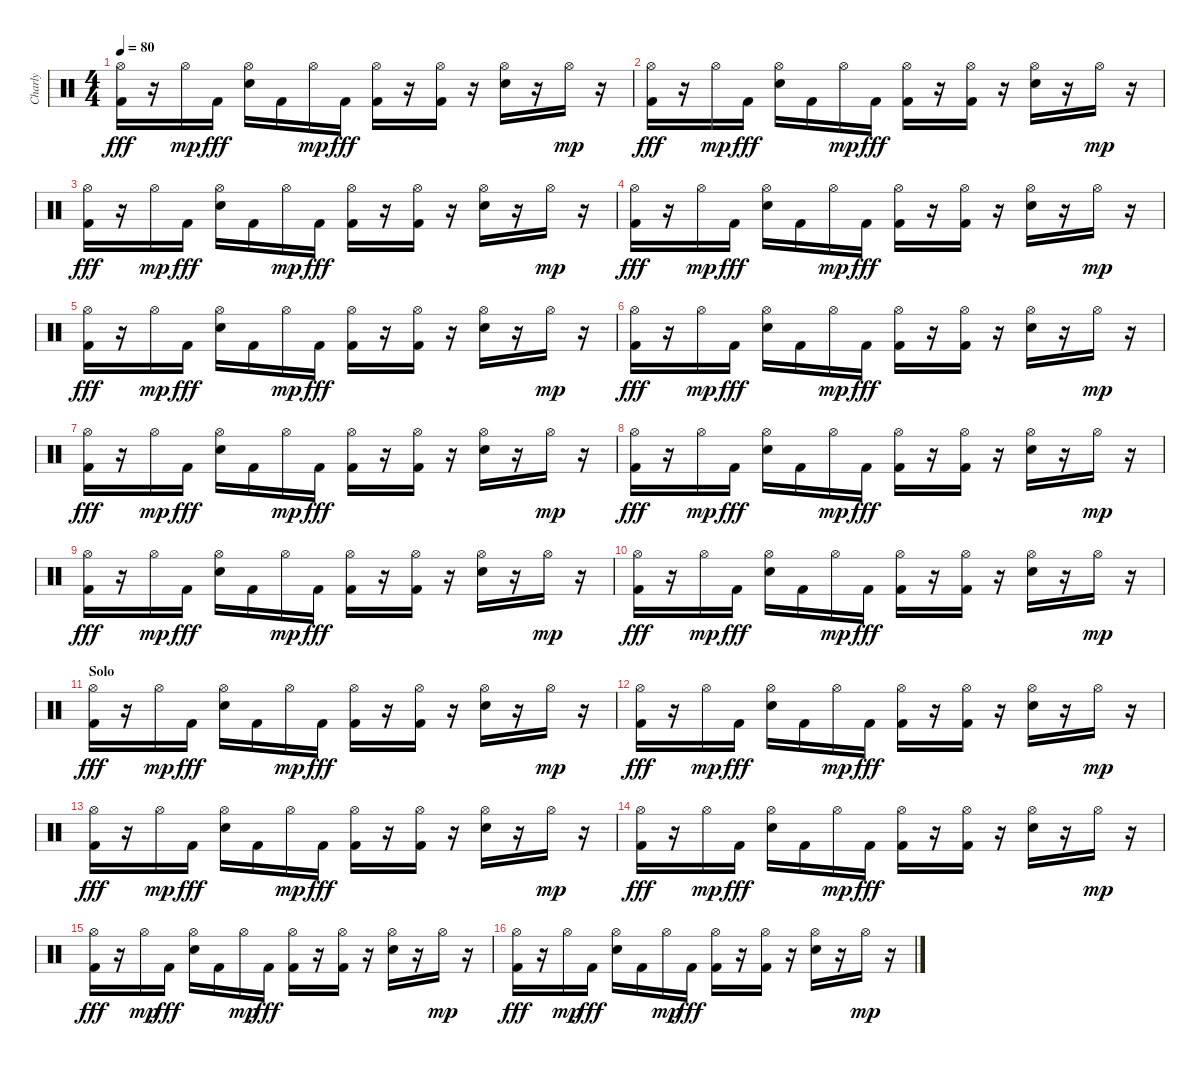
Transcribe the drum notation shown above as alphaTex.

\track ("Charly" "Charly") {instrument percussion}
\staff {score}
\articulation defaults
\ts (4 4)
\tempo 80
\clef neutral
\ks c
("Hi-Hat (open)" "Kick (hit) 2").16{dy fff} r.16 "Hi-Hat (open)".16{dy mp} "Kick (hit) 2".16{dy fff} ("Hi-Hat (open)" "Snare (hit) 2").16 "Kick (hit) 2".16 "Hi-Hat (open)".16{dy mp} "Kick (hit) 2".16{dy fff} ("Hi-Hat (open)" "Kick (hit) 2").16 r.16 ("Hi-Hat (open)" "Kick (hit) 2").16 r.16 ("Hi-Hat (open)" "Snare (hit) 2").16 r.16 "Hi-Hat (open)".16{dy mp} r.16 |
("Hi-Hat (open)" "Kick (hit) 2").16{dy fff} r.16 "Hi-Hat (open)".16{dy mp} "Kick (hit) 2".16{dy fff} ("Hi-Hat (open)" "Snare (hit) 2").16 "Kick (hit) 2".16 "Hi-Hat (open)".16{dy mp} "Kick (hit) 2".16{dy fff} ("Hi-Hat (open)" "Kick (hit) 2").16 r.16 ("Hi-Hat (open)" "Kick (hit) 2").16 r.16 ("Hi-Hat (open)" "Snare (hit) 2").16 r.16 "Hi-Hat (open)".16{dy mp} r.16 |
("Hi-Hat (open)" "Kick (hit) 2").16{dy fff} r.16 "Hi-Hat (open)".16{dy mp} "Kick (hit) 2".16{dy fff} ("Hi-Hat (open)" "Snare (hit) 2").16 "Kick (hit) 2".16 "Hi-Hat (open)".16{dy mp} "Kick (hit) 2".16{dy fff} ("Hi-Hat (open)" "Kick (hit) 2").16 r.16 ("Hi-Hat (open)" "Kick (hit) 2").16 r.16 ("Hi-Hat (open)" "Snare (hit) 2").16 r.16 "Hi-Hat (open)".16{dy mp} r.16 |
("Hi-Hat (open)" "Kick (hit) 2").16{dy fff} r.16 "Hi-Hat (open)".16{dy mp} "Kick (hit) 2".16{dy fff} ("Hi-Hat (open)" "Snare (hit) 2").16 "Kick (hit) 2".16 "Hi-Hat (open)".16{dy mp} "Kick (hit) 2".16{dy fff} ("Hi-Hat (open)" "Kick (hit) 2").16 r.16 ("Hi-Hat (open)" "Kick (hit) 2").16 r.16 ("Hi-Hat (open)" "Snare (hit) 2").16 r.16 "Hi-Hat (open)".16{dy mp} r.16 |
("Hi-Hat (open)" "Kick (hit) 2").16{dy fff} r.16 "Hi-Hat (open)".16{dy mp} "Kick (hit) 2".16{dy fff} ("Hi-Hat (open)" "Snare (hit) 2").16 "Kick (hit) 2".16 "Hi-Hat (open)".16{dy mp} "Kick (hit) 2".16{dy fff} ("Hi-Hat (open)" "Kick (hit) 2").16 r.16 ("Hi-Hat (open)" "Kick (hit) 2").16 r.16 ("Hi-Hat (open)" "Snare (hit) 2").16 r.16 "Hi-Hat (open)".16{dy mp} r.16 |
("Hi-Hat (open)" "Kick (hit) 2").16{dy fff} r.16 "Hi-Hat (open)".16{dy mp} "Kick (hit) 2".16{dy fff} ("Hi-Hat (open)" "Snare (hit) 2").16 "Kick (hit) 2".16 "Hi-Hat (open)".16{dy mp} "Kick (hit) 2".16{dy fff} ("Hi-Hat (open)" "Kick (hit) 2").16 r.16 ("Hi-Hat (open)" "Kick (hit) 2").16 r.16 ("Hi-Hat (open)" "Snare (hit) 2").16 r.16 "Hi-Hat (open)".16{dy mp} r.16 |
("Hi-Hat (open)" "Kick (hit) 2").16{dy fff} r.16 "Hi-Hat (open)".16{dy mp} "Kick (hit) 2".16{dy fff} ("Hi-Hat (open)" "Snare (hit) 2").16 "Kick (hit) 2".16 "Hi-Hat (open)".16{dy mp} "Kick (hit) 2".16{dy fff} ("Hi-Hat (open)" "Kick (hit) 2").16 r.16 ("Hi-Hat (open)" "Kick (hit) 2").16 r.16 ("Hi-Hat (open)" "Snare (hit) 2").16 r.16 "Hi-Hat (open)".16{dy mp} r.16 |
("Hi-Hat (open)" "Kick (hit) 2").16{dy fff} r.16 "Hi-Hat (open)".16{dy mp} "Kick (hit) 2".16{dy fff} ("Hi-Hat (open)" "Snare (hit) 2").16 "Kick (hit) 2".16 "Hi-Hat (open)".16{dy mp} "Kick (hit) 2".16{dy fff} ("Hi-Hat (open)" "Kick (hit) 2").16 r.16 ("Hi-Hat (open)" "Kick (hit) 2").16 r.16 ("Hi-Hat (open)" "Snare (hit) 2").16 r.16 "Hi-Hat (open)".16{dy mp} r.16 |
("Hi-Hat (open)" "Kick (hit) 2").16{dy fff} r.16 "Hi-Hat (open)".16{dy mp} "Kick (hit) 2".16{dy fff} ("Hi-Hat (open)" "Snare (hit) 2").16 "Kick (hit) 2".16 "Hi-Hat (open)".16{dy mp} "Kick (hit) 2".16{dy fff} ("Hi-Hat (open)" "Kick (hit) 2").16 r.16 ("Hi-Hat (open)" "Kick (hit) 2").16 r.16 ("Hi-Hat (open)" "Snare (hit) 2").16 r.16 "Hi-Hat (open)".16{dy mp} r.16 |
("Hi-Hat (open)" "Kick (hit) 2").16{dy fff} r.16 "Hi-Hat (open)".16{dy mp} "Kick (hit) 2".16{dy fff} ("Hi-Hat (open)" "Snare (hit) 2").16 "Kick (hit) 2".16 "Hi-Hat (open)".16{dy mp} "Kick (hit) 2".16{dy fff} ("Hi-Hat (open)" "Kick (hit) 2").16 r.16 ("Hi-Hat (open)" "Kick (hit) 2").16 r.16 ("Hi-Hat (open)" "Snare (hit) 2").16 r.16 "Hi-Hat (open)".16{dy mp} r.16 |
\section ("" "Solo")
("Hi-Hat (open)" "Kick (hit) 2").16{dy fff} r.16 "Hi-Hat (open)".16{dy mp} "Kick (hit) 2".16{dy fff} ("Hi-Hat (open)" "Snare (hit) 2").16 "Kick (hit) 2".16 "Hi-Hat (open)".16{dy mp} "Kick (hit) 2".16{dy fff} ("Hi-Hat (open)" "Kick (hit) 2").16 r.16 ("Hi-Hat (open)" "Kick (hit) 2").16 r.16 ("Hi-Hat (open)" "Snare (hit) 2").16 r.16 "Hi-Hat (open)".16{dy mp} r.16 |
("Hi-Hat (open)" "Kick (hit) 2").16{dy fff} r.16 "Hi-Hat (open)".16{dy mp} "Kick (hit) 2".16{dy fff} ("Hi-Hat (open)" "Snare (hit) 2").16 "Kick (hit) 2".16 "Hi-Hat (open)".16{dy mp} "Kick (hit) 2".16{dy fff} ("Hi-Hat (open)" "Kick (hit) 2").16 r.16 ("Hi-Hat (open)" "Kick (hit) 2").16 r.16 ("Hi-Hat (open)" "Snare (hit) 2").16 r.16 "Hi-Hat (open)".16{dy mp} r.16 |
("Hi-Hat (open)" "Kick (hit) 2").16{dy fff} r.16 "Hi-Hat (open)".16{dy mp} "Kick (hit) 2".16{dy fff} ("Hi-Hat (open)" "Snare (hit) 2").16 "Kick (hit) 2".16 "Hi-Hat (open)".16{dy mp} "Kick (hit) 2".16{dy fff} ("Hi-Hat (open)" "Kick (hit) 2").16 r.16 ("Hi-Hat (open)" "Kick (hit) 2").16 r.16 ("Hi-Hat (open)" "Snare (hit) 2").16 r.16 "Hi-Hat (open)".16{dy mp} r.16 |
("Hi-Hat (open)" "Kick (hit) 2").16{dy fff} r.16 "Hi-Hat (open)".16{dy mp} "Kick (hit) 2".16{dy fff} ("Hi-Hat (open)" "Snare (hit) 2").16 "Kick (hit) 2".16 "Hi-Hat (open)".16{dy mp} "Kick (hit) 2".16{dy fff} ("Hi-Hat (open)" "Kick (hit) 2").16 r.16 ("Hi-Hat (open)" "Kick (hit) 2").16 r.16 ("Hi-Hat (open)" "Snare (hit) 2").16 r.16 "Hi-Hat (open)".16{dy mp} r.16 |
("Hi-Hat (open)" "Kick (hit) 2").16{dy fff} r.16 "Hi-Hat (open)".16{dy mp} "Kick (hit) 2".16{dy fff} ("Hi-Hat (open)" "Snare (hit) 2").16 "Kick (hit) 2".16 "Hi-Hat (open)".16{dy mp} "Kick (hit) 2".16{dy fff} ("Hi-Hat (open)" "Kick (hit) 2").16 r.16 ("Hi-Hat (open)" "Kick (hit) 2").16 r.16 ("Hi-Hat (open)" "Snare (hit) 2").16 r.16 "Hi-Hat (open)".16{dy mp} r.16 |
("Hi-Hat (open)" "Kick (hit) 2").16{dy fff} r.16 "Hi-Hat (open)".16{dy mp} "Kick (hit) 2".16{dy fff} ("Hi-Hat (open)" "Snare (hit) 2").16 "Kick (hit) 2".16 "Hi-Hat (open)".16{dy mp} "Kick (hit) 2".16{dy fff} ("Hi-Hat (open)" "Kick (hit) 2").16 r.16 ("Hi-Hat (open)" "Kick (hit) 2").16 r.16 ("Hi-Hat (open)" "Snare (hit) 2").16 r.16 "Hi-Hat (open)".16{dy mp} r.16
